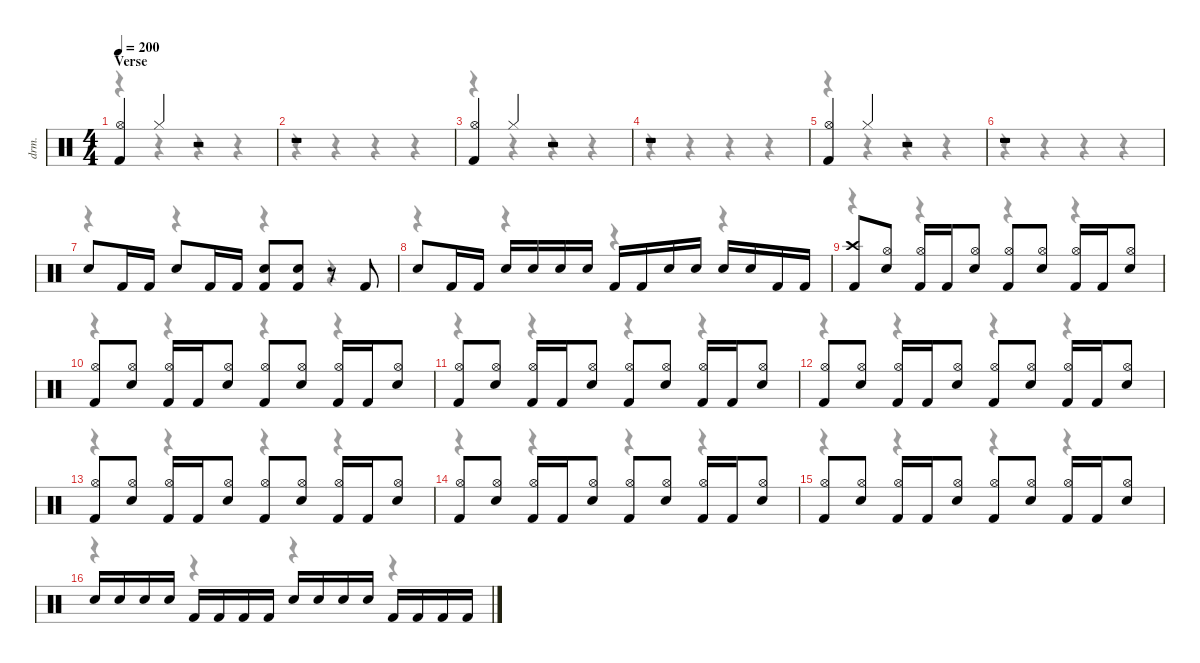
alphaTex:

\hideDynamics
\bracketExtendMode nobrackets
\otherSystemsTrackNameOrientation horizontal
\track ("Drums" "drm.") {instrument percussion}
\staff {score}
\articulation defaults
\voice
\ts (4 4)
\section ("" "Verse")
\scale
1.00157
\tempo 200
\accidentals auto
\clef neutral
\ottava regular
\simile none
\ks c
("Kick (hit) 2" "Hi-Hat (open)").4{dy f} "Hi-Hat (closed)".4{dy ppp} r.2 |
\scale
1.00157 r.1 |
\scale
0.96234 ("Kick (hit) 2" "Hi-Hat (open)").4{dy f} "Hi-Hat (closed)".4{dy ppp} r.2 |
\scale
1.00157 r.1 |
\scale
0.96234 ("Kick (hit) 2" "Hi-Hat (open)").4{dy f} "Hi-Hat (closed)".4{dy ppp} r.2 |
\scale
1.00157 r.1 |
\scale
1.0558 "Snare (hit) 2".8{dy f} "Kick (hit) 2".16 "Kick (hit) 2".16 "Snare (hit) 2".8 "Kick (hit) 2".16 "Kick (hit) 2".16 ("Kick (hit) 2" "Snare (hit) 2").8 ("Kick (hit) 2" "Snare (hit) 2").8 r.8 "Kick (hit) 2".8 |
\scale
1.00902 "Snare (hit) 2".8 "Kick (hit) 2".16 "Kick (hit) 2".16 "Snare (hit) 2".16 "Snare (hit) 2".16 "Snare (hit) 2".16 "Snare (hit) 2".16 "Kick (hit) 2".16 "Kick (hit) 2".16 "Snare (hit) 2".16 "Snare (hit) 2".16 "Snare (hit) 2".16 "Snare (hit) 2".16 "Kick (hit) 2".16 "Kick (hit) 2".16 |
\section ("" "")
\scale
0.996665 ("Kick (hit) 2" "Crash high (hit)").8 ("Snare (hit) 2" "Hi-Hat (open)").8 ("Kick (hit) 2" "Hi-Hat (open)").16 "Kick (hit) 2".16 ("Snare (hit) 2" "Hi-Hat (open)").8 ("Kick (hit) 2" "Hi-Hat (open)").8 ("Snare (hit) 2" "Hi-Hat (open)").8 ("Kick (hit) 2" "Hi-Hat (open)").16 "Kick (hit) 2".16 ("Snare (hit) 2" "Hi-Hat (open)").8 |
\scale
0.996665 ("Kick (hit) 2" "Hi-Hat (open)").8 ("Snare (hit) 2" "Hi-Hat (open)").8 ("Kick (hit) 2" "Hi-Hat (open)").16 "Kick (hit) 2".16 ("Snare (hit) 2" "Hi-Hat (open)").8 ("Kick (hit) 2" "Hi-Hat (open)").8 ("Snare (hit) 2" "Hi-Hat (open)").8 ("Kick (hit) 2" "Hi-Hat (open)").16 "Kick (hit) 2".16 ("Snare (hit) 2" "Hi-Hat (open)").8 |
\scale
0.967243 ("Kick (hit) 2" "Hi-Hat (open)").8 ("Snare (hit) 2" "Hi-Hat (open)").8 ("Kick (hit) 2" "Hi-Hat (open)").16 "Kick (hit) 2".16 ("Snare (hit) 2" "Hi-Hat (open)").8 ("Kick (hit) 2" "Hi-Hat (open)").8 ("Snare (hit) 2" "Hi-Hat (open)").8 ("Kick (hit) 2" "Hi-Hat (open)").16 "Kick (hit) 2".16 ("Snare (hit) 2" "Hi-Hat (open)").8 |
\scale
0.974599 ("Kick (hit) 2" "Hi-Hat (open)").8 ("Snare (hit) 2" "Hi-Hat (open)").8 ("Kick (hit) 2" "Hi-Hat (open)").16 "Kick (hit) 2".16 ("Snare (hit) 2" "Hi-Hat (open)").8 ("Kick (hit) 2" "Hi-Hat (open)").8 ("Snare (hit) 2" "Hi-Hat (open)").8 ("Kick (hit) 2" "Hi-Hat (open)").16 "Kick (hit) 2".16 ("Snare (hit) 2" "Hi-Hat (open)").8 |
\scale
1.05397 ("Kick (hit) 2" "Hi-Hat (open)").8 ("Snare (hit) 2" "Hi-Hat (open)").8 ("Kick (hit) 2" "Hi-Hat (open)").16 "Kick (hit) 2".16 ("Snare (hit) 2" "Hi-Hat (open)").8 ("Kick (hit) 2" "Hi-Hat (open)").8 ("Snare (hit) 2" "Hi-Hat (open)").8 ("Kick (hit) 2" "Hi-Hat (open)").16 "Kick (hit) 2".16 ("Snare (hit) 2" "Hi-Hat (open)").8 |
\scale
0.969082 ("Kick (hit) 2" "Hi-Hat (open)").8 ("Snare (hit) 2" "Hi-Hat (open)").8 ("Kick (hit) 2" "Hi-Hat (open)").16 "Kick (hit) 2".16 ("Snare (hit) 2" "Hi-Hat (open)").8 ("Kick (hit) 2" "Hi-Hat (open)").8 ("Snare (hit) 2" "Hi-Hat (open)").8 ("Kick (hit) 2" "Hi-Hat (open)").16 "Kick (hit) 2".16 ("Snare (hit) 2" "Hi-Hat (open)").8 |
\scale
0.991149 ("Kick (hit) 2" "Hi-Hat (open)").8 ("Snare (hit) 2" "Hi-Hat (open)").8 ("Kick (hit) 2" "Hi-Hat (open)").16 "Kick (hit) 2".16 ("Snare (hit) 2" "Hi-Hat (open)").8 ("Kick (hit) 2" "Hi-Hat (open)").8 ("Snare (hit) 2" "Hi-Hat (open)").8 ("Kick (hit) 2" "Hi-Hat (open)").16 "Kick (hit) 2".16 ("Snare (hit) 2" "Hi-Hat (open)").8 |
\scale
1.00351 "Snare (hit) 2".16 "Snare (hit) 2".16 "Snare (hit) 2".16 "Snare (hit) 2".16 "Kick (hit) 2".16{dy ff} "Kick (hit) 2".16 "Kick (hit) 2".16 "Kick (hit) 2".16 "Snare (hit) 2".16{dy f} "Snare (hit) 2".16 "Snare (hit) 2".16 "Snare (hit) 2".16 "Kick (hit) 2".16{dy ff} "Kick (hit) 2".16 "Kick (hit) 2".16 "Kick (hit) 2".16
\voice
\clef neutral
\ottava regular
\simile none
\ks c
r.4{dy mf} r.4 r.4 r.4 |
r.4 r.4 r.4 r.4 |
r.4 r.4 r.4 r.4 |
r.4 r.4 r.4 r.4 |
r.4 r.4 r.4 r.4 |
r.4 r.4 r.4 r.4 |
r.4 r.4 r.4 r.4 |
r.4 r.4 r.4 r.4 |
r.4 r.4 r.4 r.4 |
r.4 r.4 r.4 r.4 |
r.4 r.4 r.4 r.4 |
r.4 r.4 r.4 r.4 |
r.4 r.4 r.4 r.4 |
r.4 r.4 r.4 r.4 |
r.4 r.4 r.4 r.4 |
r.4 r.4 r.4 r.4
